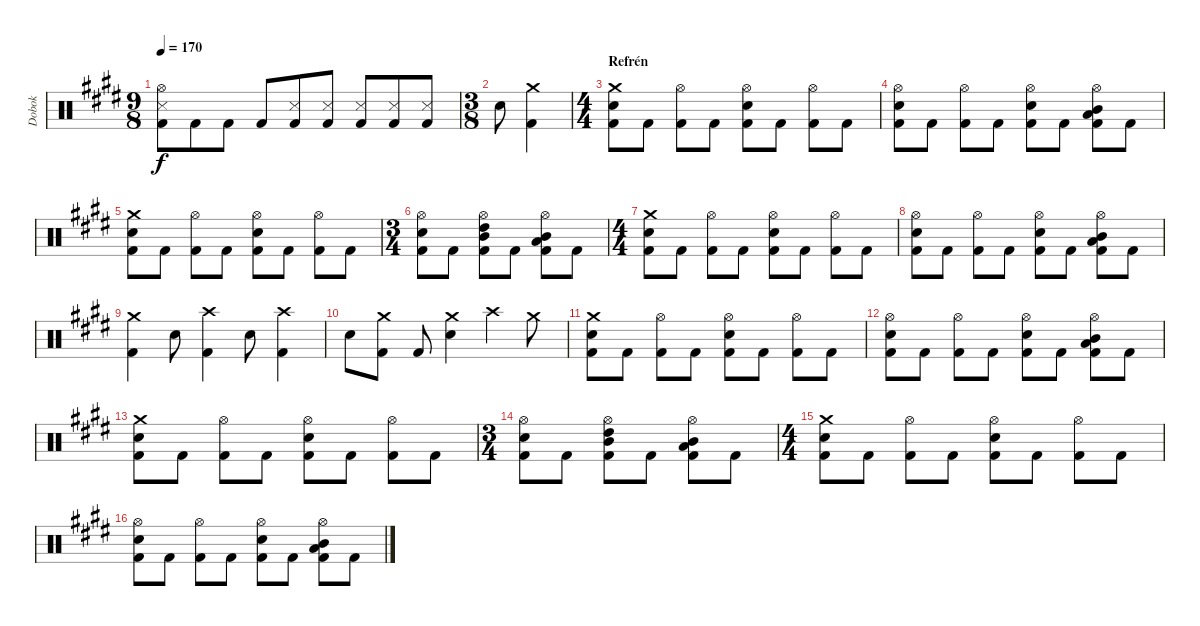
\track ("Dobok" "Dobok") {instrument percussion}
\staff {score}
\articulation defaults
\ts (9 8)
\tempo 170
\clef neutral
\ks c#minor
("Hi-Hat (open)" "Snare (side stick) 3" "Kick (hit) 2").8{dy f} "Kick (hit) 2".8 "Kick (hit) 2".8 "Kick (hit) 2".8 ("Snare (side stick) 3" "Kick (hit) 2").8 ("Snare (side stick) 3" "Kick (hit) 2").8 ("Snare (side stick) 3" "Kick (hit) 2").8 ("Snare (side stick) 3" "Kick (hit) 2").8 ("Snare (side stick) 3" "Kick (hit) 2").8 |
\ts (3 8)
"Snare (hit) 2".8 ("Crash medium (hit)" "Kick (hit) 2").4 |
\ts (4 4)
\section ("" "Refrén")
("Crash medium (hit)" "Snare (hit) 2" "Kick (hit) 2").8 "Kick (hit) 2".8 ("Hi-Hat (open)" "Kick (hit) 2").8 "Kick (hit) 2".8 ("Hi-Hat (open)" "Snare (hit) 2" "Kick (hit) 2").8 "Kick (hit) 2".8 ("Hi-Hat (open)" "Kick (hit) 2").8 "Kick (hit) 2".8 |
("Hi-Hat (open)" "Snare (hit) 2" "Kick (hit) 2").8 "Kick (hit) 2".8 ("Hi-Hat (open)" "Kick (hit) 2").8 "Kick (hit) 2".8 ("Hi-Hat (open)" "Snare (hit) 2" "Kick (hit) 2").8 "Kick (hit) 2".8 ("Hi-Hat (open)" "Low Tom (hit)" "Mid Tom (hit)" "Kick (hit) 2").8 "Kick (hit) 2".8 |
("Crash medium (hit)" "Snare (hit) 2" "Kick (hit) 2").8 "Kick (hit) 2".8 ("Hi-Hat (open)" "Kick (hit) 2").8 "Kick (hit) 2".8 ("Hi-Hat (open)" "Snare (hit) 2" "Kick (hit) 2").8 "Kick (hit) 2".8 ("Hi-Hat (open)" "Kick (hit) 2").8 "Kick (hit) 2".8 |
\ts (3 4)
("Hi-Hat (open)" "Snare (hit) 2" "Kick (hit) 2").8 "Kick (hit) 2".8 ("Hi-Hat (open)" "High Tom (hit)" "Mid Tom (hit)" "Kick (hit) 2").8 "Kick (hit) 2".8 ("Hi-Hat (open)" "Mid Tom (hit)" "Low Tom (hit)" "Kick (hit) 2").8 "Kick (hit) 2".8 |
\ts (4 4)
("Crash medium (hit)" "Snare (hit) 2" "Kick (hit) 2").8 "Kick (hit) 2".8 ("Hi-Hat (open)" "Kick (hit) 2").8 "Kick (hit) 2".8 ("Hi-Hat (open)" "Snare (hit) 2" "Kick (hit) 2").8 "Kick (hit) 2".8 ("Hi-Hat (open)" "Kick (hit) 2").8 "Kick (hit) 2".8 |
("Hi-Hat (open)" "Snare (hit) 2" "Kick (hit) 2").8 "Kick (hit) 2".8 ("Hi-Hat (open)" "Kick (hit) 2").8 "Kick (hit) 2".8 ("Hi-Hat (open)" "Snare (hit) 2" "Kick (hit) 2").8 "Kick (hit) 2".8 ("Hi-Hat (open)" "Low Tom (hit)" "Mid Tom (hit)" "Kick (hit) 2").8 "Kick (hit) 2".8 |
("Crash medium (hit)" "Kick (hit) 2").4 "Snare (hit) 2".8 ("Crash high (hit)" "Kick (hit) 2").4 "Snare (hit) 2".8 ("Crash high (hit)" "Kick (hit) 2").4 |
"Snare (hit) 2".8 ("Crash medium (hit)" "Kick (hit) 2").8 "Kick (hit) 2".8 ("Crash medium (hit)" "Snare (hit) 2").4 "Crash high (hit)".4 "Crash medium (hit)".8 |
("Crash medium (hit)" "Snare (hit) 2" "Kick (hit) 2").8 "Kick (hit) 2".8 ("Hi-Hat (open)" "Kick (hit) 2").8 "Kick (hit) 2".8 ("Hi-Hat (open)" "Snare (hit) 2" "Kick (hit) 2").8 "Kick (hit) 2".8 ("Hi-Hat (open)" "Kick (hit) 2").8 "Kick (hit) 2".8 |
("Hi-Hat (open)" "Snare (hit) 2" "Kick (hit) 2").8 "Kick (hit) 2".8 ("Hi-Hat (open)" "Kick (hit) 2").8 "Kick (hit) 2".8 ("Hi-Hat (open)" "Snare (hit) 2" "Kick (hit) 2").8 "Kick (hit) 2".8 ("Hi-Hat (open)" "Low Tom (hit)" "Mid Tom (hit)" "Kick (hit) 2").8 "Kick (hit) 2".8 |
("Crash medium (hit)" "Snare (hit) 2" "Kick (hit) 2").8 "Kick (hit) 2".8 ("Hi-Hat (open)" "Kick (hit) 2").8 "Kick (hit) 2".8 ("Hi-Hat (open)" "Snare (hit) 2" "Kick (hit) 2").8 "Kick (hit) 2".8 ("Hi-Hat (open)" "Kick (hit) 2").8 "Kick (hit) 2".8 |
\ts (3 4)
("Hi-Hat (open)" "Snare (hit) 2" "Kick (hit) 2").8 "Kick (hit) 2".8 ("Hi-Hat (open)" "High Tom (hit)" "Mid Tom (hit)" "Kick (hit) 2").8 "Kick (hit) 2".8 ("Hi-Hat (open)" "Mid Tom (hit)" "Low Tom (hit)" "Kick (hit) 2").8 "Kick (hit) 2".8 |
\ts (4 4)
("Crash medium (hit)" "Snare (hit) 2" "Kick (hit) 2").8 "Kick (hit) 2".8 ("Hi-Hat (open)" "Kick (hit) 2").8 "Kick (hit) 2".8 ("Hi-Hat (open)" "Snare (hit) 2" "Kick (hit) 2").8 "Kick (hit) 2".8 ("Hi-Hat (open)" "Kick (hit) 2").8 "Kick (hit) 2".8 |
("Hi-Hat (open)" "Snare (hit) 2" "Kick (hit) 2").8 "Kick (hit) 2".8 ("Hi-Hat (open)" "Kick (hit) 2").8 "Kick (hit) 2".8 ("Hi-Hat (open)" "Snare (hit) 2" "Kick (hit) 2").8 "Kick (hit) 2".8 ("Hi-Hat (open)" "Low Tom (hit)" "Mid Tom (hit)" "Kick (hit) 2").8 "Kick (hit) 2".8
